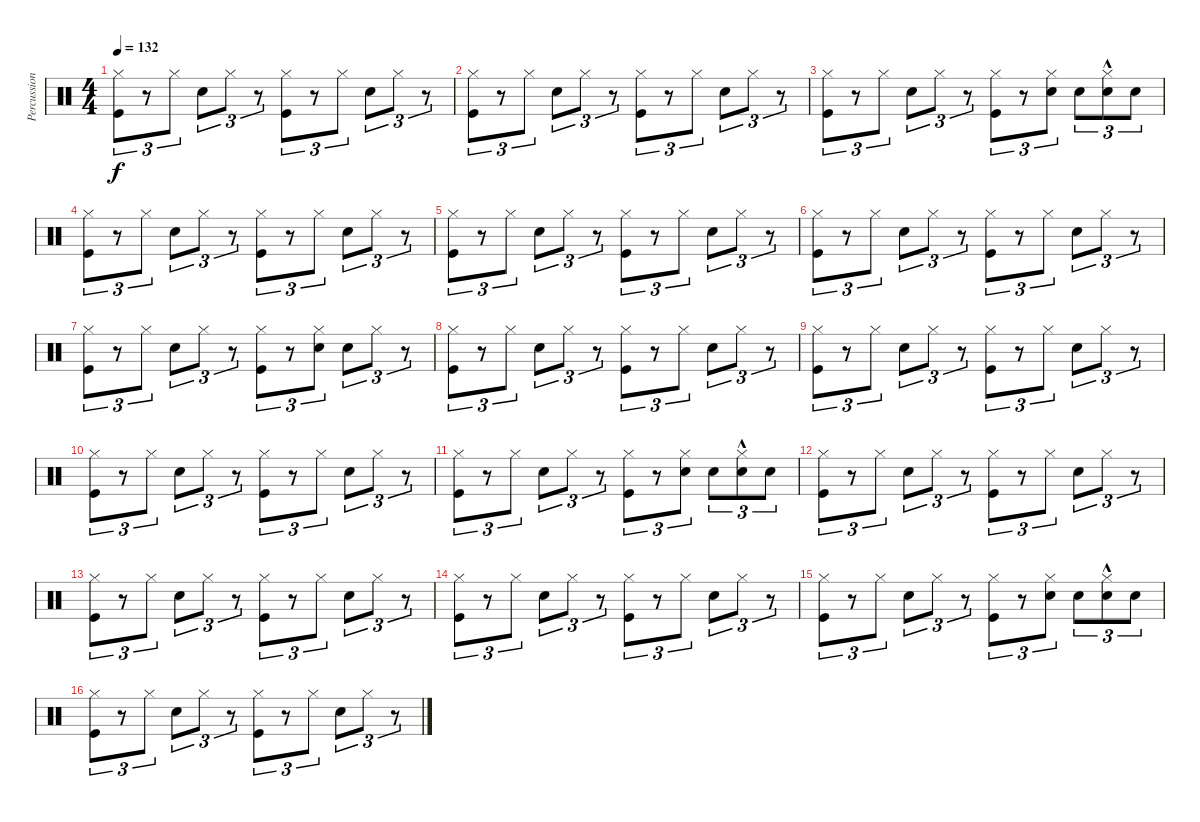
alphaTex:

\track ("Percussions" "Percussion") {instrument percussion}
\staff {score}
\articulation defaults
\ts (4 4)
\tempo 132
\clef neutral
\ks c
("Kick (hit)" "Hi-Hat (closed)").8{tu (3 2) dy f} r.8{tu (3 2)} "Hi-Hat (closed)".8{tu (3 2)} "Snare (hit) 2".8{tu (3 2)} "Hi-Hat (closed)".8{tu (3 2)} r.8{tu (3 2)} ("Kick (hit)" "Hi-Hat (closed)").8{tu (3 2)} r.8{tu (3 2)} "Hi-Hat (closed)".8{tu (3 2)} "Snare (hit) 2".8{tu (3 2)} "Hi-Hat (closed)".8{tu (3 2)} r.8{tu (3 2)} |
("Kick (hit)" "Hi-Hat (closed)").8{tu (3 2)} r.8{tu (3 2)} "Hi-Hat (closed)".8{tu (3 2)} "Snare (hit) 2".8{tu (3 2)} "Hi-Hat (closed)".8{tu (3 2)} r.8{tu (3 2)} ("Kick (hit)" "Hi-Hat (closed)").8{tu (3 2)} r.8{tu (3 2)} "Hi-Hat (closed)".8{tu (3 2)} "Snare (hit) 2".8{tu (3 2)} "Hi-Hat (closed)".8{tu (3 2)} r.8{tu (3 2)} |
("Kick (hit)" "Hi-Hat (closed)").8{tu (3 2)} r.8{tu (3 2)} "Hi-Hat (closed)".8{tu (3 2)} "Snare (hit) 2".8{tu (3 2)} "Hi-Hat (closed)".8{tu (3 2)} r.8{tu (3 2)} ("Kick (hit)" "Hi-Hat (closed)").8{tu (3 2)} r.8{tu (3 2)} ("Hi-Hat (closed)" "Snare (hit) 2").8{tu (3 2)} "Snare (hit) 2".8{tu (3 2)} ("Hi-Hat (closed)"{hac} "Snare (hit) 2"{hac}).8{tu (3 2)} "Snare (hit) 2".8{tu (3 2)} |
("Kick (hit)" "Hi-Hat (closed)").8{tu (3 2)} r.8{tu (3 2)} "Hi-Hat (closed)".8{tu (3 2)} "Snare (hit) 2".8{tu (3 2)} "Hi-Hat (closed)".8{tu (3 2)} r.8{tu (3 2)} ("Kick (hit)" "Hi-Hat (closed)").8{tu (3 2)} r.8{tu (3 2)} "Hi-Hat (closed)".8{tu (3 2)} "Snare (hit) 2".8{tu (3 2)} "Hi-Hat (closed)".8{tu (3 2)} r.8{tu (3 2)} |
("Kick (hit)" "Hi-Hat (closed)").8{tu (3 2)} r.8{tu (3 2)} "Hi-Hat (closed)".8{tu (3 2)} "Snare (hit) 2".8{tu (3 2)} "Hi-Hat (closed)".8{tu (3 2)} r.8{tu (3 2)} ("Kick (hit)" "Hi-Hat (closed)").8{tu (3 2)} r.8{tu (3 2)} "Hi-Hat (closed)".8{tu (3 2)} "Snare (hit) 2".8{tu (3 2)} "Hi-Hat (closed)".8{tu (3 2)} r.8{tu (3 2)} |
("Kick (hit)" "Hi-Hat (closed)").8{tu (3 2)} r.8{tu (3 2)} "Hi-Hat (closed)".8{tu (3 2)} "Snare (hit) 2".8{tu (3 2)} "Hi-Hat (closed)".8{tu (3 2)} r.8{tu (3 2)} ("Kick (hit)" "Hi-Hat (closed)").8{tu (3 2)} r.8{tu (3 2)} "Hi-Hat (closed)".8{tu (3 2)} "Snare (hit) 2".8{tu (3 2)} "Hi-Hat (closed)".8{tu (3 2)} r.8{tu (3 2)} |
("Kick (hit)" "Hi-Hat (closed)").8{tu (3 2)} r.8{tu (3 2)} "Hi-Hat (closed)".8{tu (3 2)} "Snare (hit) 2".8{tu (3 2)} "Hi-Hat (closed)".8{tu (3 2)} r.8{tu (3 2)} ("Kick (hit)" "Hi-Hat (closed)").8{tu (3 2)} r.8{tu (3 2)} ("Hi-Hat (closed)" "Snare (hit) 2").8{tu (3 2)} "Snare (hit) 2".8{tu (3 2)} "Hi-Hat (closed)".8{tu (3 2)} r.8{tu (3 2)} |
("Kick (hit)" "Hi-Hat (closed)").8{tu (3 2)} r.8{tu (3 2)} "Hi-Hat (closed)".8{tu (3 2)} "Snare (hit) 2".8{tu (3 2)} "Hi-Hat (closed)".8{tu (3 2)} r.8{tu (3 2)} ("Kick (hit)" "Hi-Hat (closed)").8{tu (3 2)} r.8{tu (3 2)} "Hi-Hat (closed)".8{tu (3 2)} "Snare (hit) 2".8{tu (3 2)} "Hi-Hat (closed)".8{tu (3 2)} r.8{tu (3 2)} |
("Kick (hit)" "Hi-Hat (closed)").8{tu (3 2)} r.8{tu (3 2)} "Hi-Hat (closed)".8{tu (3 2)} "Snare (hit) 2".8{tu (3 2)} "Hi-Hat (closed)".8{tu (3 2)} r.8{tu (3 2)} ("Kick (hit)" "Hi-Hat (closed)").8{tu (3 2)} r.8{tu (3 2)} "Hi-Hat (closed)".8{tu (3 2)} "Snare (hit) 2".8{tu (3 2)} "Hi-Hat (closed)".8{tu (3 2)} r.8{tu (3 2)} |
("Kick (hit)" "Hi-Hat (closed)").8{tu (3 2)} r.8{tu (3 2)} "Hi-Hat (closed)".8{tu (3 2)} "Snare (hit) 2".8{tu (3 2)} "Hi-Hat (closed)".8{tu (3 2)} r.8{tu (3 2)} ("Kick (hit)" "Hi-Hat (closed)").8{tu (3 2)} r.8{tu (3 2)} "Hi-Hat (closed)".8{tu (3 2)} "Snare (hit) 2".8{tu (3 2)} "Hi-Hat (closed)".8{tu (3 2)} r.8{tu (3 2)} |
("Kick (hit)" "Hi-Hat (closed)").8{tu (3 2)} r.8{tu (3 2)} "Hi-Hat (closed)".8{tu (3 2)} "Snare (hit) 2".8{tu (3 2)} "Hi-Hat (closed)".8{tu (3 2)} r.8{tu (3 2)} ("Kick (hit)" "Hi-Hat (closed)").8{tu (3 2)} r.8{tu (3 2)} ("Hi-Hat (closed)" "Snare (hit) 2").8{tu (3 2)} "Snare (hit) 2".8{tu (3 2)} ("Hi-Hat (closed)"{hac} "Snare (hit) 2"{hac}).8{tu (3 2)} "Snare (hit) 2".8{tu (3 2)} |
("Kick (hit)" "Hi-Hat (closed)").8{tu (3 2)} r.8{tu (3 2)} "Hi-Hat (closed)".8{tu (3 2)} "Snare (hit) 2".8{tu (3 2)} "Hi-Hat (closed)".8{tu (3 2)} r.8{tu (3 2)} ("Kick (hit)" "Hi-Hat (closed)").8{tu (3 2)} r.8{tu (3 2)} "Hi-Hat (closed)".8{tu (3 2)} "Snare (hit) 2".8{tu (3 2)} "Hi-Hat (closed)".8{tu (3 2)} r.8{tu (3 2)} |
("Kick (hit)" "Hi-Hat (closed)").8{tu (3 2)} r.8{tu (3 2)} "Hi-Hat (closed)".8{tu (3 2)} "Snare (hit) 2".8{tu (3 2)} "Hi-Hat (closed)".8{tu (3 2)} r.8{tu (3 2)} ("Kick (hit)" "Hi-Hat (closed)").8{tu (3 2)} r.8{tu (3 2)} "Hi-Hat (closed)".8{tu (3 2)} "Snare (hit) 2".8{tu (3 2)} "Hi-Hat (closed)".8{tu (3 2)} r.8{tu (3 2)} |
("Kick (hit)" "Hi-Hat (closed)").8{tu (3 2)} r.8{tu (3 2)} "Hi-Hat (closed)".8{tu (3 2)} "Snare (hit) 2".8{tu (3 2)} "Hi-Hat (closed)".8{tu (3 2)} r.8{tu (3 2)} ("Kick (hit)" "Hi-Hat (closed)").8{tu (3 2)} r.8{tu (3 2)} "Hi-Hat (closed)".8{tu (3 2)} "Snare (hit) 2".8{tu (3 2)} "Hi-Hat (closed)".8{tu (3 2)} r.8{tu (3 2)} |
("Kick (hit)" "Hi-Hat (closed)").8{tu (3 2)} r.8{tu (3 2)} "Hi-Hat (closed)".8{tu (3 2)} "Snare (hit) 2".8{tu (3 2)} "Hi-Hat (closed)".8{tu (3 2)} r.8{tu (3 2)} ("Kick (hit)" "Hi-Hat (closed)").8{tu (3 2)} r.8{tu (3 2)} ("Hi-Hat (closed)" "Snare (hit) 2").8{tu (3 2)} "Snare (hit) 2".8{tu (3 2)} ("Hi-Hat (closed)"{hac} "Snare (hit) 2"{hac}).8{tu (3 2)} "Snare (hit) 2".8{tu (3 2)} |
("Kick (hit)" "Hi-Hat (closed)").8{tu (3 2)} r.8{tu (3 2)} "Hi-Hat (closed)".8{tu (3 2)} "Snare (hit) 2".8{tu (3 2)} "Hi-Hat (closed)".8{tu (3 2)} r.8{tu (3 2)} ("Kick (hit)" "Hi-Hat (closed)").8{tu (3 2)} r.8{tu (3 2)} "Hi-Hat (closed)".8{tu (3 2)} "Snare (hit) 2".8{tu (3 2)} "Hi-Hat (closed)".8{tu (3 2)} r.8{tu (3 2)}
